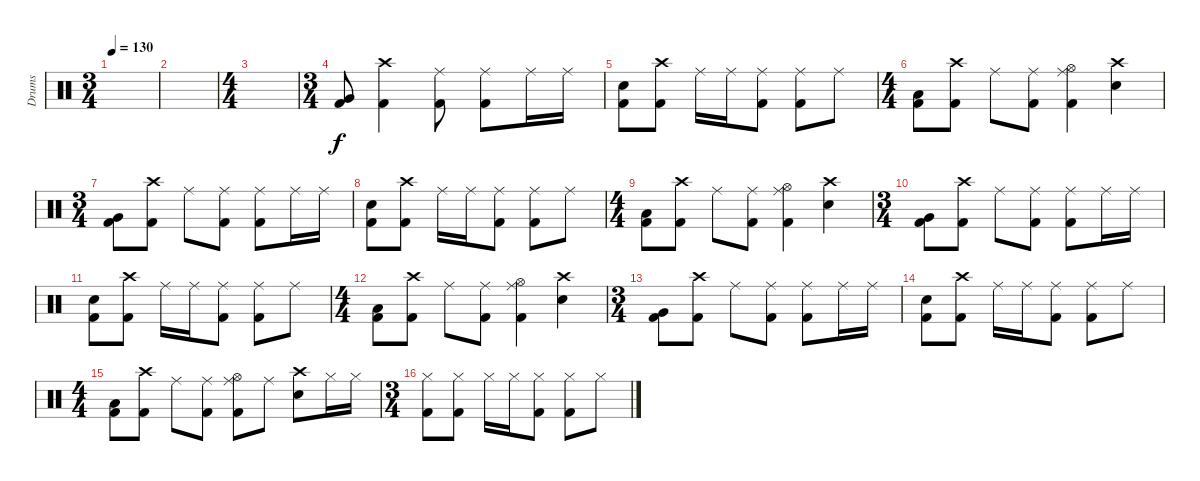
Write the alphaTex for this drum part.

\track ("Drums" "Drums") {instrument percussion}
\staff {score}
\articulation defaults
\ts (3 4)
\tempo 130
\clef neutral
\ks c
|
|
\ts (4 4)
|
\ts (3 4)
("Very Low Tom (hit)" "Kick (hit) 2").8 ("Crash high (hit)" "Kick (hit) 2").4 ("Ride (middle)" "Kick (hit) 2").8 ("Ride (middle)" "Kick (hit) 2").8 "Ride (middle)".16 "Ride (middle)".16 |
("Snare (hit) 2" "Kick (hit) 2").8 ("Crash high (hit)" "Kick (hit) 2").8 "Ride (middle)".16 "Ride (middle)".16 ("Ride (middle)" "Kick (hit) 2").8 ("Ride (middle)" "Kick (hit) 2").8 "Ride (middle)".8 |
\ts (4 4)
("Low Floor Tom (hit)" "Kick (hit) 2").8 ("Crash high (hit)" "Kick (hit) 2").8 "Ride (middle)".8 ("Ride (middle)" "Kick (hit) 2").8 ("Ride (middle)" "Hi-Hat (open)" "Kick (hit) 2").4 ("Crash high (hit)" "Snare (hit) 2").4 |
\ts (3 4)
("Very Low Tom (hit)" "Kick (hit) 2").8 ("Crash high (hit)" "Kick (hit) 2").8 "Ride (middle)".8 ("Ride (middle)" "Kick (hit) 2").8 ("Ride (middle)" "Kick (hit) 2").8 "Ride (middle)".16 "Ride (middle)".16 |
("Snare (hit) 2" "Kick (hit) 2").8 ("Crash high (hit)" "Kick (hit) 2").8 "Ride (middle)".16 "Ride (middle)".16 ("Ride (middle)" "Kick (hit) 2").8 ("Ride (middle)" "Kick (hit) 2").8 "Ride (middle)".8 |
\ts (4 4)
("Low Floor Tom (hit)" "Kick (hit) 2").8 ("Crash high (hit)" "Kick (hit) 2").8 "Ride (middle)".8 ("Ride (middle)" "Kick (hit) 2").8 ("Ride (middle)" "Hi-Hat (open)" "Kick (hit) 2").4 ("Crash high (hit)" "Snare (hit) 2").4 |
\ts (3 4)
("Very Low Tom (hit)" "Kick (hit) 2").8 ("Crash high (hit)" "Kick (hit) 2").8 "Ride (middle)".8 ("Ride (middle)" "Kick (hit) 2").8 ("Ride (middle)" "Kick (hit) 2").8 "Ride (middle)".16 "Ride (middle)".16 |
("Snare (hit) 2" "Kick (hit) 2").8 ("Crash high (hit)" "Kick (hit) 2").8 "Ride (middle)".16 "Ride (middle)".16 ("Ride (middle)" "Kick (hit) 2").8 ("Ride (middle)" "Kick (hit) 2").8 "Ride (middle)".8 |
\ts (4 4)
("Low Floor Tom (hit)" "Kick (hit) 2").8 ("Crash high (hit)" "Kick (hit) 2").8 "Ride (middle)".8 ("Ride (middle)" "Kick (hit) 2").8 ("Ride (middle)" "Hi-Hat (open)" "Kick (hit) 2").4 ("Crash high (hit)" "Snare (hit) 2").4 |
\ts (3 4)
("Very Low Tom (hit)" "Kick (hit) 2").8 ("Crash high (hit)" "Kick (hit) 2").8 "Ride (middle)".8 ("Ride (middle)" "Kick (hit) 2").8 ("Ride (middle)" "Kick (hit) 2").8 "Ride (middle)".16 "Ride (middle)".16 |
("Snare (hit) 2" "Kick (hit) 2").8 ("Crash high (hit)" "Kick (hit) 2").8 "Ride (middle)".16 "Ride (middle)".16 ("Ride (middle)" "Kick (hit) 2").8 ("Ride (middle)" "Kick (hit) 2").8 "Ride (middle)".8 |
\ts (4 4)
("Low Floor Tom (hit)" "Kick (hit) 2").8 ("Crash high (hit)" "Kick (hit) 2").8 "Ride (middle)".8 ("Ride (middle)" "Kick (hit) 2").8 ("Ride (middle)" "Hi-Hat (open)" "Kick (hit) 2").8 "Ride (middle)".8 ("Crash high (hit)" "Snare (hit) 2").8 "Hi-Hat (closed)".16 "Hi-Hat (closed)".16 |
\ts (3 4)
("Hi-Hat (closed)" "Kick (hit) 2").8 ("Hi-Hat (closed)" "Kick (hit) 2").8 "Hi-Hat (closed)".16 "Hi-Hat (closed)".16 ("Hi-Hat (closed)" "Kick (hit) 2").8 ("Hi-Hat (closed)" "Kick (hit) 2").8 "Hi-Hat (closed)".8
